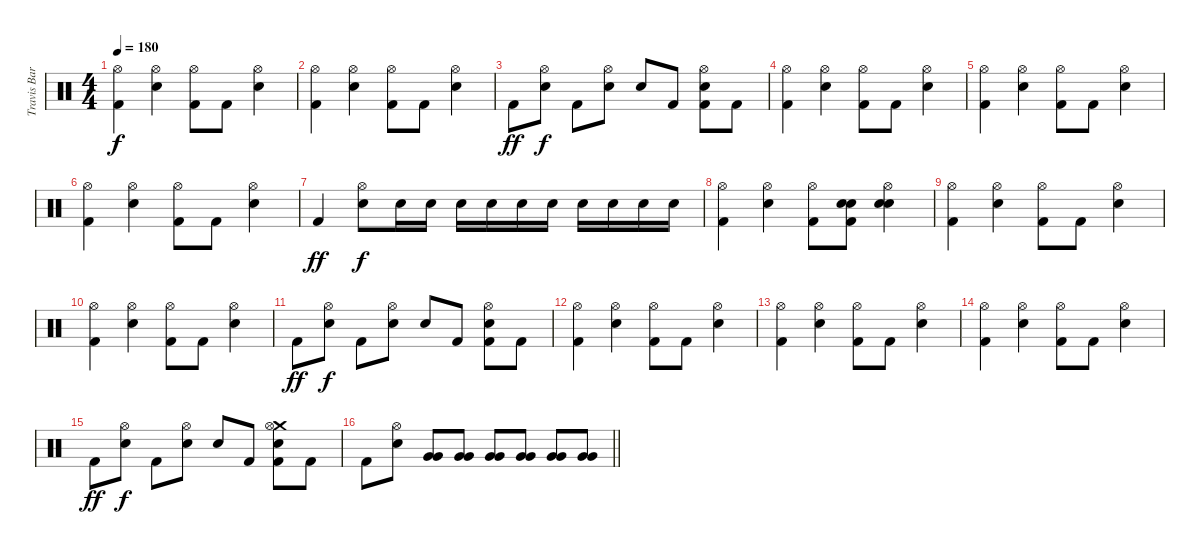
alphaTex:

\track ("Travis Barker" "Travis Bar") {instrument percussion}
\staff {score}
\articulation defaults
\ts (4 4)
\tempo 180
\clef neutral
\ks c
("Hi-Hat (open)" "Kick (hit) 2").4{dy f} ("Hi-Hat (open)" "Electric Snare (hit)").4 ("Hi-Hat (open)" "Kick (hit) 2").8 "Kick (hit) 2".8 ("Hi-Hat (open)" "Electric Snare (hit)").4 |
("Hi-Hat (open)" "Kick (hit) 2").4 ("Hi-Hat (open)" "Electric Snare (hit)").4 ("Hi-Hat (open)" "Kick (hit) 2").8 "Kick (hit) 2".8 ("Hi-Hat (open)" "Electric Snare (hit)").4 |
"Kick (hit) 2".8{dy ff} ("Hi-Hat (open)" "Electric Snare (hit)").8{dy f} "Kick (hit) 2".8 ("Hi-Hat (open)" "Electric Snare (hit)").8 "Electric Snare (hit)".8 "Kick (hit) 2".8 ("Hi-Hat (open)" "Electric Snare (hit)" "Kick (hit) 2").8 "Kick (hit) 2".8 |
("Hi-Hat (open)" "Kick (hit) 2").4 ("Hi-Hat (open)" "Electric Snare (hit)").4 ("Hi-Hat (open)" "Kick (hit) 2").8 "Kick (hit) 2".8 ("Hi-Hat (open)" "Electric Snare (hit)").4 |
("Hi-Hat (open)" "Kick (hit) 2").4 ("Hi-Hat (open)" "Electric Snare (hit)").4 ("Hi-Hat (open)" "Kick (hit) 2").8 "Kick (hit) 2".8 ("Hi-Hat (open)" "Electric Snare (hit)").4 |
("Hi-Hat (open)" "Kick (hit) 2").4 ("Hi-Hat (open)" "Electric Snare (hit)").4 ("Hi-Hat (open)" "Kick (hit) 2").8 "Kick (hit) 2".8 ("Hi-Hat (open)" "Electric Snare (hit)").4 |
"Kick (hit) 2".4{dy ff} ("Hi-Hat (open)" "Electric Snare (hit)").8{dy f} "Electric Snare (hit)".16 "Electric Snare (hit)".16 "Electric Snare (hit)".16 "Electric Snare (hit)".16 "Electric Snare (hit)".16 "Electric Snare (hit)".16 "Electric Snare (hit)".16 "Electric Snare (hit)".16 "Electric Snare (hit)".16 "Electric Snare (hit)".16 |
("Hi-Hat (open)" "Kick (hit) 2").4 ("Hi-Hat (open)" "Electric Snare (hit)").4 ("Hi-Hat (open)" "Kick (hit) 2").8 ("Electric Snare (hit)" "Electric Snare (hit)" "Kick (hit) 2").8 ("Hi-Hat (open)" "Electric Snare (hit)" "Electric Snare (hit)").4 |
("Hi-Hat (open)" "Kick (hit) 2").4 ("Hi-Hat (open)" "Electric Snare (hit)").4 ("Hi-Hat (open)" "Kick (hit) 2").8 "Kick (hit) 2".8 ("Hi-Hat (open)" "Electric Snare (hit)").4 |
("Hi-Hat (open)" "Kick (hit) 2").4 ("Hi-Hat (open)" "Electric Snare (hit)").4 ("Hi-Hat (open)" "Kick (hit) 2").8 "Kick (hit) 2".8 ("Hi-Hat (open)" "Electric Snare (hit)").4 |
"Kick (hit) 2".8{dy ff} ("Hi-Hat (open)" "Electric Snare (hit)").8{dy f} "Kick (hit) 2".8 ("Hi-Hat (open)" "Electric Snare (hit)").8 "Electric Snare (hit)".8 "Kick (hit) 2".8 ("Hi-Hat (open)" "Electric Snare (hit)" "Kick (hit) 2").8 "Kick (hit) 2".8 |
("Hi-Hat (open)" "Kick (hit) 2").4 ("Hi-Hat (open)" "Electric Snare (hit)").4 ("Hi-Hat (open)" "Kick (hit) 2").8 "Kick (hit) 2".8 ("Hi-Hat (open)" "Electric Snare (hit)").4 |
("Hi-Hat (open)" "Kick (hit) 2").4 ("Hi-Hat (open)" "Electric Snare (hit)").4 ("Hi-Hat (open)" "Kick (hit) 2").8 "Kick (hit) 2".8 ("Hi-Hat (open)" "Electric Snare (hit)").4 |
("Hi-Hat (open)" "Kick (hit) 2").4 ("Hi-Hat (open)" "Electric Snare (hit)").4 ("Hi-Hat (open)" "Kick (hit) 2").8 "Kick (hit) 2".8 ("Hi-Hat (open)" "Electric Snare (hit)").4 |
"Kick (hit) 2".8{dy ff} ("Hi-Hat (open)" "Electric Snare (hit)").8{dy f} "Kick (hit) 2".8 ("Hi-Hat (open)" "Electric Snare (hit)").8 "Electric Snare (hit)".8 "Kick (hit) 2".8 ("Crash medium (hit)" "Hi-Hat (open)" "Electric Snare (hit)" "Kick (hit) 2").8 "Kick (hit) 2".8 |
\barLineRight lightlight "Kick (hit) 2".8
("Hi-Hat (open)" "Electric Snare (hit)").8 ("Very Low Tom (hit)" "Very Low Tom (hit)").8 ("Very Low Tom (hit)" "Very Low Tom (hit)").8 ("Very Low Tom (hit)" "Very Low Tom (hit)").8 ("Very Low Tom (hit)" "Very Low Tom (hit)").8 ("Very Low Tom (hit)" "Very Low Tom (hit)").8 ("Very Low Tom (hit)" "Very Low Tom (hit)").8
